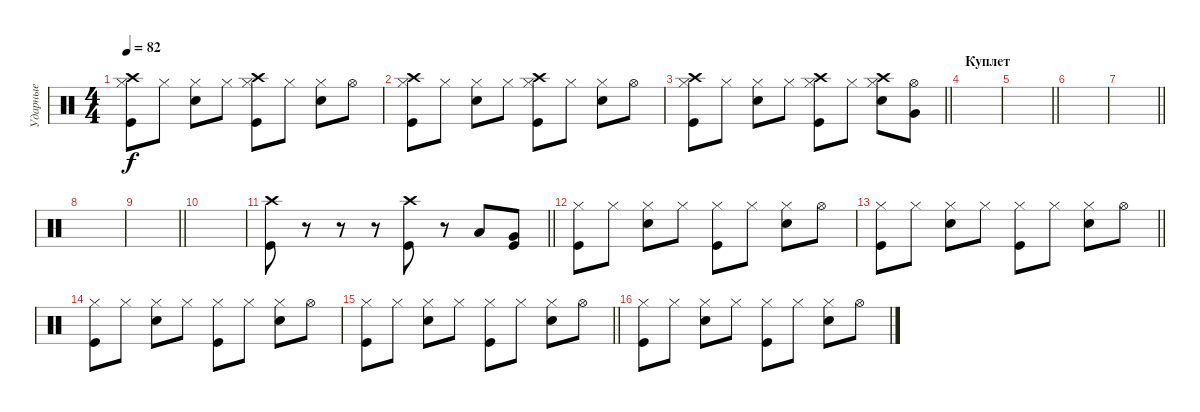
\track ("Ударные" "Ударные") {instrument percussion}
\staff {score}
\articulation defaults
\ts (4 4)
\tempo 82
\clef neutral
\ks c
("Kick (hit)" "Crash high (hit)" "Hi-Hat (closed)").8{dy f} "Hi-Hat (closed)".8 ("Electric Snare (hit)" "Hi-Hat (closed)").8 "Hi-Hat (closed)".8 ("Kick (hit)" "Crash high (hit)" "Hi-Hat (closed)").8 "Hi-Hat (closed)".8 ("Electric Snare (hit)" "Hi-Hat (closed)").8 "Hi-Hat (open)".8 |
("Kick (hit)" "Crash high (hit)" "Hi-Hat (closed)").8 "Hi-Hat (closed)".8 ("Electric Snare (hit)" "Hi-Hat (closed)").8 "Hi-Hat (closed)".8 ("Kick (hit)" "Crash high (hit)" "Hi-Hat (closed)").8 "Hi-Hat (closed)".8 ("Electric Snare (hit)" "Hi-Hat (closed)").8 "Hi-Hat (open)".8 |
\barLineRight lightlight
("Kick (hit)" "Crash high (hit)" "Hi-Hat (closed)").8 "Hi-Hat (closed)".8 ("Electric Snare (hit)" "Hi-Hat (closed)").8 "Hi-Hat (closed)".8 ("Kick (hit)" "Crash high (hit)" "Hi-Hat (closed)").8 "Hi-Hat (closed)".8 ("Electric Snare (hit)" "Crash high (hit)" "Hi-Hat (closed)").8 ("Very Low Tom (hit)" "Hi-Hat (open)").8 |
\section ("" "Куплет")
|
\barLineRight lightlight
|
|
\barLineRight lightlight
|
|
\barLineRight lightlight
|
|
\barLineRight lightlight
("Kick (hit)" "Crash high (hit)").8 r.8 r.8 r.8 ("Kick (hit)" "Crash high (hit)").8 r.8 "Low Floor Tom (hit)".8 ("Kick (hit)" "Very Low Tom (hit)").8 |
("Kick (hit)" "Hi-Hat (closed)").8 "Hi-Hat (closed)".8 ("Electric Snare (hit)" "Hi-Hat (closed)").8 "Hi-Hat (closed)".8 ("Kick (hit)" "Hi-Hat (closed)").8 "Hi-Hat (closed)".8 ("Electric Snare (hit)" "Hi-Hat (closed)").8 "Hi-Hat (open)".8 |
\barLineRight lightlight
("Kick (hit)" "Hi-Hat (closed)").8 "Hi-Hat (closed)".8 ("Electric Snare (hit)" "Hi-Hat (closed)").8 "Hi-Hat (closed)".8 ("Kick (hit)" "Hi-Hat (closed)").8 "Hi-Hat (closed)".8 ("Electric Snare (hit)" "Hi-Hat (closed)").8 "Hi-Hat (open)".8 |
("Kick (hit)" "Hi-Hat (closed)").8 "Hi-Hat (closed)".8 ("Electric Snare (hit)" "Hi-Hat (closed)").8 "Hi-Hat (closed)".8 ("Kick (hit)" "Hi-Hat (closed)").8 "Hi-Hat (closed)".8 ("Electric Snare (hit)" "Hi-Hat (closed)").8 "Hi-Hat (open)".8 |
\barLineRight lightlight
("Kick (hit)" "Hi-Hat (closed)").8 "Hi-Hat (closed)".8 ("Electric Snare (hit)" "Hi-Hat (closed)").8 "Hi-Hat (closed)".8 ("Kick (hit)" "Hi-Hat (closed)").8 "Hi-Hat (closed)".8 ("Electric Snare (hit)" "Hi-Hat (closed)").8 "Hi-Hat (open)".8 |
("Kick (hit)" "Hi-Hat (closed)").8 "Hi-Hat (closed)".8 ("Electric Snare (hit)" "Hi-Hat (closed)").8 "Hi-Hat (closed)".8 ("Kick (hit)" "Hi-Hat (closed)").8 "Hi-Hat (closed)".8 ("Electric Snare (hit)" "Hi-Hat (closed)").8 "Hi-Hat (open)".8
